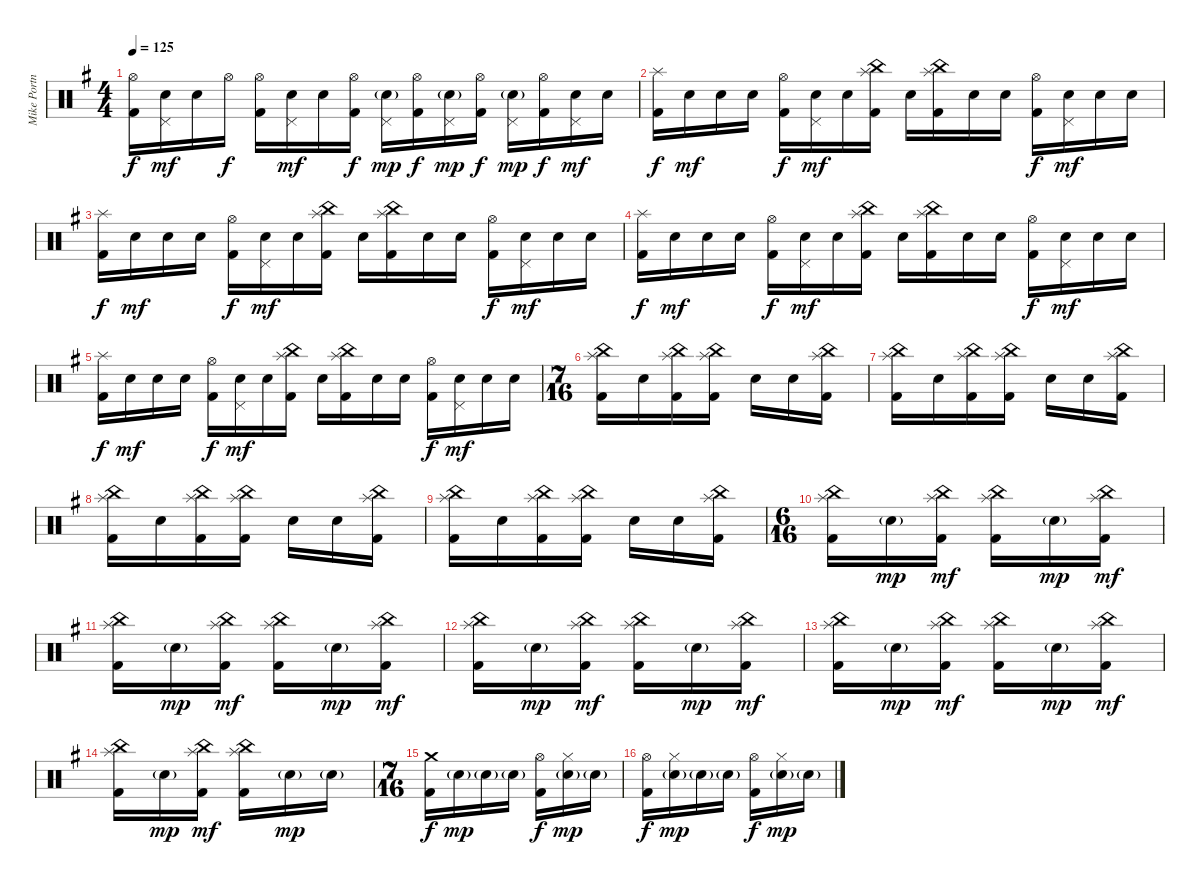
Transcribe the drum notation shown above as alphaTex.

\track ("Mike Portnoy - Drums" "Mike Portn") {instrument percussion}
\staff {score}
\articulation defaults
\ts (4 4)
\tempo 125
\clef neutral
\ks g
("Hi-Hat (open)" "Kick (hit) 2").16{dy f} ("Pedal Hi-Hat (hit)" "Electric Snare (hit)").16{dy mf} "Electric Snare (hit)".16 "Hi-Hat (open)".16{dy f} ("Hi-Hat (open)" "Kick (hit) 2").16 ("Pedal Hi-Hat (hit)" "Electric Snare (hit)").16{dy mf} "Electric Snare (hit)".16 ("Hi-Hat (open)" "Kick (hit) 2").16{dy f} ("Pedal Hi-Hat (hit)" "Electric Snare (hit)"{g}).16{dy mp} ("Hi-Hat (open)" "Kick (hit) 2").16{dy f} ("Pedal Hi-Hat (hit)" "Electric Snare (hit)"{g}).16{dy mp} ("Hi-Hat (open)" "Kick (hit) 2").16{dy f} ("Pedal Hi-Hat (hit)" "Electric Snare (hit)"{g}).16{dy mp} ("Hi-Hat (open)" "Kick (hit) 2").16{dy f} ("Pedal Hi-Hat (hit)" "Electric Snare (hit)").16{dy mf} "Electric Snare (hit)".16 |
("Splash (hit)" "Kick (hit) 2").16{dy f} "Electric Snare (hit)".16{dy mf} "Electric Snare (hit)".16 "Electric Snare (hit)".16 ("Hi-Hat (open)" "Kick (hit) 2").16{dy f} ("Pedal Hi-Hat (hit)" "Electric Snare (hit)").16{dy mf} "Electric Snare (hit)".16 ("China (hit)" "Splash (hit)" "Kick (hit) 2").16 "Electric Snare (hit)".16 ("China (hit)" "Splash (hit)" "Kick (hit) 2").16 "Electric Snare (hit)".16 "Electric Snare (hit)".16 ("Hi-Hat (open)" "Kick (hit) 2").16{dy f} ("Pedal Hi-Hat (hit)" "Electric Snare (hit)").16{dy mf} "Electric Snare (hit)".16 "Electric Snare (hit)".16 |
("Splash (hit)" "Kick (hit) 2").16{dy f} "Electric Snare (hit)".16{dy mf} "Electric Snare (hit)".16 "Electric Snare (hit)".16 ("Hi-Hat (open)" "Kick (hit) 2").16{dy f} ("Pedal Hi-Hat (hit)" "Electric Snare (hit)").16{dy mf} "Electric Snare (hit)".16 ("China (hit)" "Splash (hit)" "Kick (hit) 2").16 "Electric Snare (hit)".16 ("China (hit)" "Splash (hit)" "Kick (hit) 2").16 "Electric Snare (hit)".16 "Electric Snare (hit)".16 ("Hi-Hat (open)" "Kick (hit) 2").16{dy f} ("Pedal Hi-Hat (hit)" "Electric Snare (hit)").16{dy mf} "Electric Snare (hit)".16 "Electric Snare (hit)".16 |
("Splash (hit)" "Kick (hit) 2").16{dy f} "Electric Snare (hit)".16{dy mf} "Electric Snare (hit)".16 "Electric Snare (hit)".16 ("Hi-Hat (open)" "Kick (hit) 2").16{dy f} ("Pedal Hi-Hat (hit)" "Electric Snare (hit)").16{dy mf} "Electric Snare (hit)".16 ("China (hit)" "Splash (hit)" "Kick (hit) 2").16 "Electric Snare (hit)".16 ("China (hit)" "Splash (hit)" "Kick (hit) 2").16 "Electric Snare (hit)".16 "Electric Snare (hit)".16 ("Hi-Hat (open)" "Kick (hit) 2").16{dy f} ("Pedal Hi-Hat (hit)" "Electric Snare (hit)").16{dy mf} "Electric Snare (hit)".16 "Electric Snare (hit)".16 |
("Splash (hit)" "Kick (hit) 2").16{dy f} "Electric Snare (hit)".16{dy mf} "Electric Snare (hit)".16 "Electric Snare (hit)".16 ("Hi-Hat (open)" "Kick (hit) 2").16{dy f} ("Pedal Hi-Hat (hit)" "Electric Snare (hit)").16{dy mf} "Electric Snare (hit)".16 ("China (hit)" "Splash (hit)" "Kick (hit) 2").16 "Electric Snare (hit)".16 ("China (hit)" "Splash (hit)" "Kick (hit) 2").16 "Electric Snare (hit)".16 "Electric Snare (hit)".16 ("Hi-Hat (open)" "Kick (hit) 2").16{dy f} ("Pedal Hi-Hat (hit)" "Electric Snare (hit)").16{dy mf} "Electric Snare (hit)".16 "Electric Snare (hit)".16 |
\ts (7 16)
("China (hit)" "Splash (hit)" "Kick (hit) 2").16 "Electric Snare (hit)".16 ("China (hit)" "Splash (hit)" "Kick (hit) 2").16 ("China (hit)" "Splash (hit)" "Kick (hit) 2").16 "Electric Snare (hit)".16 "Electric Snare (hit)".16 ("China (hit)" "Splash (hit)" "Kick (hit) 2").16 |
("China (hit)" "Splash (hit)" "Kick (hit) 2").16 "Electric Snare (hit)".16 ("China (hit)" "Splash (hit)" "Kick (hit) 2").16 ("China (hit)" "Splash (hit)" "Kick (hit) 2").16 "Electric Snare (hit)".16 "Electric Snare (hit)".16 ("China (hit)" "Splash (hit)" "Kick (hit) 2").16 |
("China (hit)" "Splash (hit)" "Kick (hit) 2").16 "Electric Snare (hit)".16 ("China (hit)" "Splash (hit)" "Kick (hit) 2").16 ("China (hit)" "Splash (hit)" "Kick (hit) 2").16 "Electric Snare (hit)".16 "Electric Snare (hit)".16 ("China (hit)" "Splash (hit)" "Kick (hit) 2").16 |
("China (hit)" "Splash (hit)" "Kick (hit) 2").16 "Electric Snare (hit)".16 ("China (hit)" "Splash (hit)" "Kick (hit) 2").16 ("China (hit)" "Splash (hit)" "Kick (hit) 2").16 "Electric Snare (hit)".16 "Electric Snare (hit)".16 ("China (hit)" "Splash (hit)" "Kick (hit) 2").16 |
\ts (6 16)
("Splash (hit)" "China (hit)" "Kick (hit) 2").16 "Electric Snare (hit)"{g}.16{dy mp} ("Splash (hit)" "China (hit)" "Kick (hit) 2").16{dy mf} ("Splash (hit)" "China (hit)" "Kick (hit) 2").16 "Electric Snare (hit)"{g}.16{dy mp} ("Splash (hit)" "China (hit)" "Kick (hit) 2").16{dy mf} |
("Splash (hit)" "China (hit)" "Kick (hit) 2").16 "Electric Snare (hit)"{g}.16{dy mp} ("Splash (hit)" "China (hit)" "Kick (hit) 2").16{dy mf} ("Splash (hit)" "China (hit)" "Kick (hit) 2").16 "Electric Snare (hit)"{g}.16{dy mp} ("Splash (hit)" "China (hit)" "Kick (hit) 2").16{dy mf} |
("Splash (hit)" "China (hit)" "Kick (hit) 2").16 "Electric Snare (hit)"{g}.16{dy mp} ("Splash (hit)" "China (hit)" "Kick (hit) 2").16{dy mf} ("Splash (hit)" "China (hit)" "Kick (hit) 2").16 "Electric Snare (hit)"{g}.16{dy mp} ("Splash (hit)" "China (hit)" "Kick (hit) 2").16{dy mf} |
("Splash (hit)" "China (hit)" "Kick (hit) 2").16 "Electric Snare (hit)"{g}.16{dy mp} ("Splash (hit)" "China (hit)" "Kick (hit) 2").16{dy mf} ("Splash (hit)" "China (hit)" "Kick (hit) 2").16 "Electric Snare (hit)"{g}.16{dy mp} ("Splash (hit)" "China (hit)" "Kick (hit) 2").16{dy mf} |
("Splash (hit)" "China (hit)" "Kick (hit) 2").16 "Electric Snare (hit)"{g}.16{dy mp} ("Splash (hit)" "China (hit)" "Kick (hit) 2").16{dy mf} ("Splash (hit)" "China (hit)" "Kick (hit) 2").16 "Electric Snare (hit)"{g}.16{dy mp} "Electric Snare (hit)"{g}.16 |
\ts (7 16)
("Crash medium (hit)" "Kick (hit) 2").16{dy f} "Snare (hit) 2"{g}.16{dy mp} "Snare (hit) 2"{g}.16 "Snare (hit) 2"{g}.16 ("Hi-Hat (open)" "Kick (hit) 2").16{dy f} ("Hi-Hat (closed)" "Snare (hit) 2"{g}).16{dy mp} "Snare (hit) 2"{g}.16 |
("Hi-Hat (open)" "Kick (hit) 2").16{dy f} ("Hi-Hat (closed)" "Snare (hit) 2"{g}).16{dy mp} "Snare (hit) 2"{g}.16 "Snare (hit) 2"{g}.16 ("Hi-Hat (open)" "Kick (hit) 2").16{dy f} ("Hi-Hat (closed)" "Snare (hit) 2"{g}).16{dy mp} "Snare (hit) 2"{g}.16
